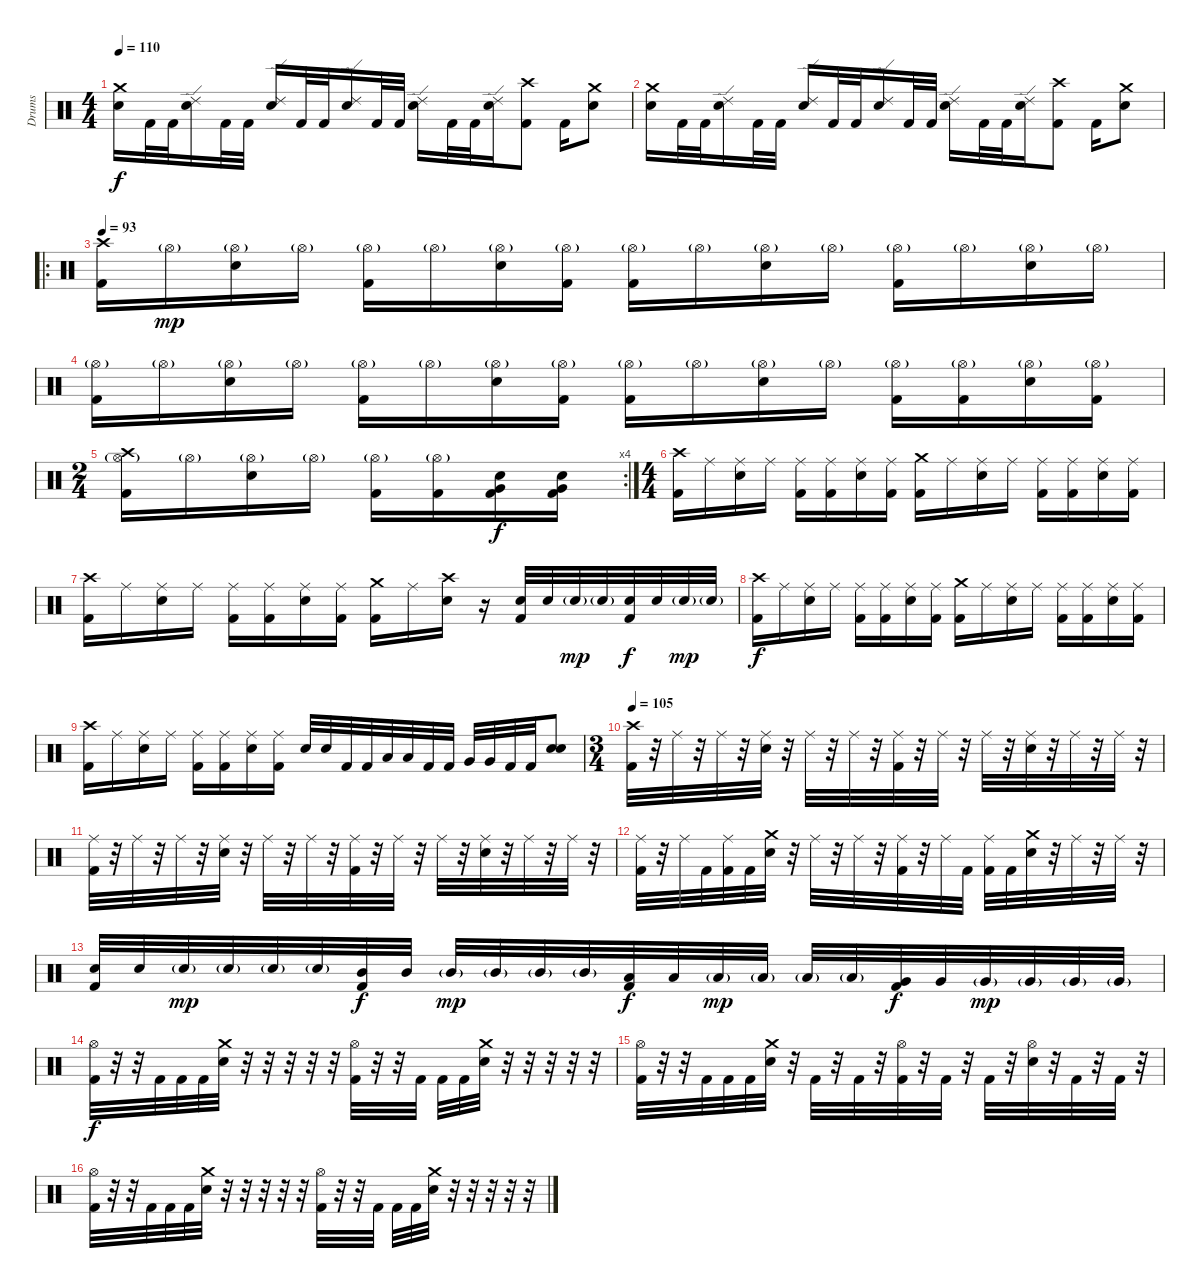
\track ("Drums" "Drums") {instrument percussion}
\staff {score}
\articulation defaults
\ts (4 4)
\tempo 110
\clef neutral
\ks c
("Crash medium (hit)" "Snare (hit) 2").16{dy f} "Kick (hit) 2".32 "Kick (hit) 2".32 ("Ride (edge) 2" "Snare (hit) 2").16 "Kick (hit) 2".32 "Kick (hit) 2".32 ("Ride (edge) 2" "Snare (hit) 2").16 "Kick (hit) 2".32 "Kick (hit) 2".32 ("Ride (edge) 2" "Snare (hit) 2").16 "Kick (hit) 2".32 "Kick (hit) 2".32 ("Ride (edge) 2" "Snare (hit) 2").16 "Kick (hit) 2".32 "Kick (hit) 2".32 ("Ride (edge) 2" "Snare (hit) 2").16 ("Crash high (hit)" "Kick (hit) 2").8 "Kick (hit) 2".16 ("Crash medium (hit)" "Snare (hit) 2").8 |
("Crash medium (hit)" "Snare (hit) 2").16 "Kick (hit) 2".32 "Kick (hit) 2".32 ("Ride (edge) 2" "Snare (hit) 2").16 "Kick (hit) 2".32 "Kick (hit) 2".32 ("Ride (edge) 2" "Snare (hit) 2").16 "Kick (hit) 2".32 "Kick (hit) 2".32 ("Ride (edge) 2" "Snare (hit) 2").16 "Kick (hit) 2".32 "Kick (hit) 2".32 ("Ride (edge) 2" "Snare (hit) 2").16 "Kick (hit) 2".32 "Kick (hit) 2".32 ("Ride (edge) 2" "Snare (hit) 2").16 ("Crash high (hit)" "Kick (hit) 2").8 "Kick (hit) 2".16 ("Crash medium (hit)" "Snare (hit) 2").8 |
\ro
\tempo 93
("Crash high (hit)" "Kick (hit) 2").16 "Hi-Hat (open)"{g}.16{dy mp} ("Hi-Hat (open)"{g} "Snare (hit) 2").16 "Hi-Hat (open)"{g}.16 ("Hi-Hat (open)"{g} "Kick (hit) 2").16 "Hi-Hat (open)"{g}.16 ("Hi-Hat (open)"{g} "Snare (hit) 2").16 ("Hi-Hat (open)"{g} "Kick (hit) 2").16 ("Hi-Hat (open)"{g} "Kick (hit) 2").16 "Hi-Hat (open)"{g}.16 ("Hi-Hat (open)"{g} "Snare (hit) 2").16 "Hi-Hat (open)"{g}.16 ("Hi-Hat (open)"{g} "Kick (hit) 2").16 "Hi-Hat (open)"{g}.16 ("Hi-Hat (open)"{g} "Snare (hit) 2").16 "Hi-Hat (open)"{g}.16 |
("Hi-Hat (open)"{g} "Kick (hit) 2").16 "Hi-Hat (open)"{g}.16 ("Hi-Hat (open)"{g} "Snare (hit) 2").16 "Hi-Hat (open)"{g}.16 ("Hi-Hat (open)"{g} "Kick (hit) 2").16 "Hi-Hat (open)"{g}.16 ("Hi-Hat (open)"{g} "Snare (hit) 2").16 ("Hi-Hat (open)"{g} "Kick (hit) 2").16 ("Hi-Hat (open)"{g} "Kick (hit) 2").16 "Hi-Hat (open)"{g}.16 ("Hi-Hat (open)"{g} "Snare (hit) 2").16 "Hi-Hat (open)"{g}.16 ("Hi-Hat (open)"{g} "Kick (hit) 2").16 ("Hi-Hat (open)"{g} "Kick (hit) 2").16 ("Hi-Hat (open)"{g} "Snare (hit) 2").16 ("Hi-Hat (open)"{g} "Kick (hit) 2").16 |
\rc 4
\ts (2 4)
("Crash high (hit)" "Hi-Hat (open)"{g} "Kick (hit) 2").16 "Hi-Hat (open)"{g}.16 ("Hi-Hat (open)"{g} "Snare (hit) 2").16 "Hi-Hat (open)"{g}.16 ("Hi-Hat (open)"{g} "Kick (hit) 2").16 ("Hi-Hat (open)"{g} "Kick (hit) 2").16 ("Snare (hit) 2" "Very Low Tom (hit)" "Kick (hit) 2").16{dy f} ("Snare (hit) 2" "Very Low Tom (hit)" "Kick (hit) 2").16 |
\ts (4 4)
("Crash high (hit)" "Kick (hit) 2").16 "Ride (middle)".16 ("Ride (middle)" "Snare (hit) 2").16 "Ride (middle)".16 ("Ride (middle)" "Kick (hit) 2").16 ("Ride (middle)" "Kick (hit) 2").16 ("Ride (middle)" "Snare (hit) 2").16 ("Ride (middle)" "Kick (hit) 2").16 ("Crash medium (hit)" "Kick (hit) 2").16 "Ride (middle)".16 ("Ride (middle)" "Snare (hit) 2").16 "Ride (middle)".16 ("Ride (middle)" "Kick (hit) 2").16 ("Ride (middle)" "Kick (hit) 2").16 ("Ride (middle)" "Snare (hit) 2").16 ("Ride (middle)" "Kick (hit) 2").16 |
("Crash high (hit)" "Kick (hit) 2").16 "Ride (middle)".16 ("Ride (middle)" "Snare (hit) 2").16 "Ride (middle)".16 ("Ride (middle)" "Kick (hit) 2").16 ("Ride (middle)" "Kick (hit) 2").16 ("Ride (middle)" "Snare (hit) 2").16 ("Ride (middle)" "Kick (hit) 2").16 ("Crash medium (hit)" "Kick (hit) 2").16 "Ride (middle)".16 ("Crash high (hit)" "Snare (hit) 2").16 r.16 ("Snare (hit) 2" "Kick (hit) 2").32 "Snare (hit) 2".32 "Snare (hit) 2"{g}.32{dy mp} "Snare (hit) 2"{g}.32 ("Snare (hit) 2" "Kick (hit) 2").32{dy f} "Snare (hit) 2".32 "Snare (hit) 2"{g}.32{dy mp} "Snare (hit) 2"{g}.32 |
("Crash high (hit)" "Kick (hit) 2").16{dy f} "Ride (middle)".16 ("Ride (middle)" "Snare (hit) 2").16 "Ride (middle)".16 ("Ride (middle)" "Kick (hit) 2").16 ("Ride (middle)" "Kick (hit) 2").16 ("Ride (middle)" "Snare (hit) 2").16 ("Ride (middle)" "Kick (hit) 2").16 ("Crash medium (hit)" "Kick (hit) 2").16 "Ride (middle)".16 ("Ride (middle)" "Snare (hit) 2").16 "Ride (middle)".16 ("Ride (middle)" "Kick (hit) 2").16 ("Ride (middle)" "Kick (hit) 2").16 ("Ride (middle)" "Snare (hit) 2").16 ("Ride (middle)" "Kick (hit) 2").16 |
("Crash high (hit)" "Kick (hit) 2").16 "Ride (middle)".16 ("Ride (middle)" "Snare (hit) 2").16 "Ride (middle)".16 ("Ride (middle)" "Kick (hit) 2").16 ("Ride (middle)" "Kick (hit) 2").16 ("Ride (middle)" "Snare (hit) 2").16 ("Ride (middle)" "Kick (hit) 2").16 "Snare (hit) 2".32 "Snare (hit) 2".32 "Kick (hit) 2".32 "Kick (hit) 2".32 "Low Tom (hit)".32 "Low Tom (hit)".32 "Kick (hit) 2".32 "Kick (hit) 2".32 "Very Low Tom (hit)".32 "Very Low Tom (hit)".32 "Kick (hit) 2".32 "Kick (hit) 2".32 ("Snare (hit) 2" "Snare (hit) 2").8{bd 60} |
\ts (3 4)
\tempo 105
("Crash high (hit)" "Kick (hit) 2").32 r.32 "Ride (middle)".32 r.32 "Ride (middle)".32 r.32 ("Ride (middle)" "Snare (hit) 2").32 r.32 "Ride (middle)".32 r.32 "Ride (middle)".32 r.32 ("Ride (middle)" "Kick (hit) 2").32 r.32 "Ride (middle)".32 r.32 "Ride (middle)".32 r.32 ("Ride (middle)" "Snare (hit) 2").32 r.32 "Ride (middle)".32 r.32 "Ride (middle)".32 r.32 |
("Ride (middle)" "Kick (hit) 2").32 r.32 "Ride (middle)".32 r.32 "Ride (middle)".32 r.32 ("Ride (middle)" "Snare (hit) 2").32 r.32 "Ride (middle)".32 r.32 "Ride (middle)".32 r.32 ("Ride (middle)" "Kick (hit) 2").32 r.32 "Ride (middle)".32 r.32 "Ride (middle)".32 r.32 ("Ride (middle)" "Snare (hit) 2").32 r.32 "Ride (middle)".32 r.32 "Ride (middle)".32 r.32 |
("Ride (middle)" "Kick (hit) 2").32 r.32 "Ride (middle)".32 "Kick (hit) 2".32 ("Ride (middle)" "Kick (hit) 2").32 "Kick (hit) 2".32 ("Crash medium (hit)" "Snare (hit) 2").32 r.32 "Ride (middle)".32 r.32 "Ride (middle)".32 r.32 ("Ride (middle)" "Kick (hit) 2").32 r.32 "Ride (middle)".32 "Kick (hit) 2".32 ("Ride (middle)" "Kick (hit) 2").32 "Kick (hit) 2".32 ("Crash medium (hit)" "Snare (hit) 2").32 r.32 "Ride (middle)".32 r.32 "Ride (middle)".32 r.32 |
("Snare (hit) 2" "Kick (hit) 2").32 "Snare (hit) 2".32 "Snare (hit) 2"{g}.32{dy mp} "Snare (hit) 2"{g}.32 "Snare (hit) 2"{g}.32 "Snare (hit) 2"{g}.32 ("Mid Tom (hit)" "Kick (hit) 2").32{dy f} "Mid Tom (hit)".32 "Mid Tom (hit)"{g}.32{dy mp} "Mid Tom (hit)"{g}.32 "Mid Tom (hit)"{g}.32 "Mid Tom (hit)"{g}.32 ("Low Tom (hit)" "Kick (hit) 2").32{dy f} "Low Tom (hit)".32 "Low Tom (hit)"{g}.32{dy mp} "Low Tom (hit)"{g}.32 "Low Tom (hit)"{g}.32 "Low Tom (hit)"{g}.32 ("Very Low Tom (hit)" "Kick (hit) 2").32{dy f} "Very Low Tom (hit)".32 "Very Low Tom (hit)"{g}.32{dy mp} "Very Low Tom (hit)"{g}.32 "Very Low Tom (hit)"{g}.32 "Very Low Tom (hit)"{g}.32 |
("Hi-Hat (open)" "Kick (hit) 2").32{dy f} r.32 r.32 "Kick (hit) 2".32 "Kick (hit) 2".32 "Kick (hit) 2".32 ("Crash medium (hit)" "Snare (hit) 2").32 r.32 r.32 r.32 r.32 r.32 ("Hi-Hat (open)" "Kick (hit) 2").32 r.32 r.32 "Kick (hit) 2".32 "Kick (hit) 2".32 "Kick (hit) 2".32 ("Crash medium (hit)" "Snare (hit) 2").32 r.32 r.32 r.32 r.32 r.32 |
("Hi-Hat (open)" "Kick (hit) 2").32 r.32 r.32 "Kick (hit) 2".32 "Kick (hit) 2".32 "Kick (hit) 2".32 ("Crash medium (hit)" "Snare (hit) 2").32 r.32 "Kick (hit) 2".32 r.32 "Kick (hit) 2".32 r.32 ("Hi-Hat (open)" "Kick (hit) 2").32 r.32 "Kick (hit) 2".32 r.32 "Kick (hit) 2".32 r.32 ("Hi-Hat (open)" "Snare (hit) 2").32 r.32 "Kick (hit) 2".32 r.32 "Kick (hit) 2".32 r.32 |
("Hi-Hat (open)" "Kick (hit) 2").32 r.32 r.32 "Kick (hit) 2".32 "Kick (hit) 2".32 "Kick (hit) 2".32 ("Crash medium (hit)" "Snare (hit) 2").32 r.32 r.32 r.32 r.32 r.32 ("Hi-Hat (open)" "Kick (hit) 2").32 r.32 r.32 "Kick (hit) 2".32 "Kick (hit) 2".32 "Kick (hit) 2".32 ("Crash medium (hit)" "Snare (hit) 2").32 r.32 r.32 r.32 r.32 r.32
